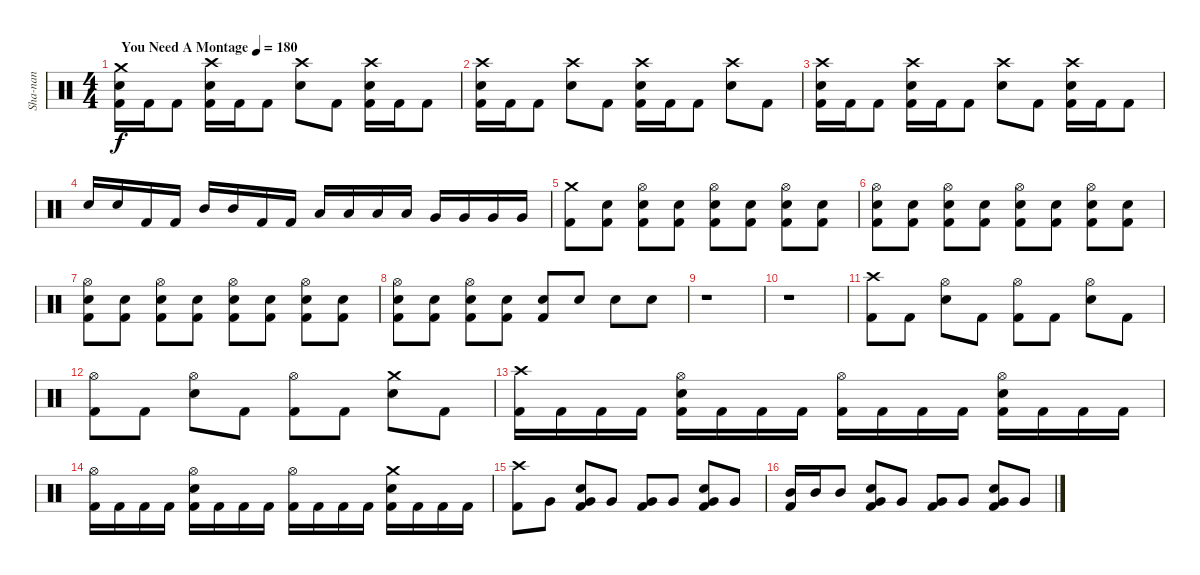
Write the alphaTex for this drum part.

\track ("Sha-nan" "Sha-nan") {instrument percussion}
\staff {score}
\articulation defaults
\ts (4 4)
\tempo (180 "You Need A Montage")
\clef neutral
\ks c
("Crash medium (hit)" "Snare (hit) 2" "Kick (hit) 2").16{dy f} "Kick (hit) 2".16 "Kick (hit) 2".8 ("Crash high (hit)" "Snare (hit) 2" "Kick (hit) 2").16 "Kick (hit) 2".16 "Kick (hit) 2".8 ("Crash high (hit)" "Snare (hit) 2").8 "Kick (hit) 2".8 ("Crash high (hit)" "Snare (hit) 2" "Kick (hit) 2").16 "Kick (hit) 2".16 "Kick (hit) 2".8 |
("Crash high (hit)" "Snare (hit) 2" "Kick (hit) 2").16 "Kick (hit) 2".16 "Kick (hit) 2".8 ("Crash high (hit)" "Snare (hit) 2").8 "Kick (hit) 2".8 ("Crash high (hit)" "Snare (hit) 2" "Kick (hit) 2").16 "Kick (hit) 2".16 "Kick (hit) 2".8 ("Crash high (hit)" "Snare (hit) 2").8 "Kick (hit) 2".8 |
("Crash high (hit)" "Snare (hit) 2" "Kick (hit) 2").16 "Kick (hit) 2".16 "Kick (hit) 2".8 ("Crash high (hit)" "Snare (hit) 2" "Kick (hit) 2").16 "Kick (hit) 2".16 "Kick (hit) 2".8 ("Crash high (hit)" "Snare (hit) 2").8 "Kick (hit) 2".8 ("Crash high (hit)" "Snare (hit) 2" "Kick (hit) 2").16 "Kick (hit) 2".16 "Kick (hit) 2".8 |
"Snare (hit) 2".16 "Snare (hit) 2".16 "Kick (hit) 2".16 "Kick (hit) 2".16 "Mid Tom (hit)".16 "Mid Tom (hit)".16 "Kick (hit) 2".16 "Kick (hit) 2".16 "Low Tom (hit)".16 "Low Tom (hit)".16 "Low Tom (hit)".16 "Low Tom (hit)".16 "Very Low Tom (hit)".16 "Very Low Tom (hit)".16 "Very Low Tom (hit)".16 "Very Low Tom (hit)".16 |
("Crash medium (hit)" "Kick (hit) 2").8 ("Snare (hit) 2" "Kick (hit) 2").8 ("Hi-Hat (open)" "Snare (hit) 2" "Kick (hit) 2").8 ("Snare (hit) 2" "Kick (hit) 2").8 ("Hi-Hat (open)" "Snare (hit) 2" "Kick (hit) 2").8 ("Snare (hit) 2" "Kick (hit) 2").8 ("Hi-Hat (open)" "Snare (hit) 2" "Kick (hit) 2").8 ("Snare (hit) 2" "Kick (hit) 2").8 |
("Hi-Hat (open)" "Snare (hit) 2" "Kick (hit) 2").8 ("Snare (hit) 2" "Kick (hit) 2").8 ("Hi-Hat (open)" "Snare (hit) 2" "Kick (hit) 2").8 ("Snare (hit) 2" "Kick (hit) 2").8 ("Hi-Hat (open)" "Snare (hit) 2" "Kick (hit) 2").8 ("Snare (hit) 2" "Kick (hit) 2").8 ("Hi-Hat (open)" "Snare (hit) 2" "Kick (hit) 2").8 ("Snare (hit) 2" "Kick (hit) 2").8 |
("Hi-Hat (open)" "Snare (hit) 2" "Kick (hit) 2").8 ("Snare (hit) 2" "Kick (hit) 2").8 ("Hi-Hat (open)" "Snare (hit) 2" "Kick (hit) 2").8 ("Snare (hit) 2" "Kick (hit) 2").8 ("Hi-Hat (open)" "Snare (hit) 2" "Kick (hit) 2").8 ("Snare (hit) 2" "Kick (hit) 2").8 ("Hi-Hat (open)" "Snare (hit) 2" "Kick (hit) 2").8 ("Snare (hit) 2" "Kick (hit) 2").8 |
("Hi-Hat (open)" "Snare (hit) 2" "Kick (hit) 2").8 ("Snare (hit) 2" "Kick (hit) 2").8 ("Hi-Hat (open)" "Snare (hit) 2" "Kick (hit) 2").8 ("Snare (hit) 2" "Kick (hit) 2").8 ("Snare (hit) 2" "Kick (hit) 2").8 "Snare (hit) 2".8 "Snare (hit) 2".8 "Snare (hit) 2".8 |
r.1 |
r.1 |
("Crash high (hit)" "Kick (hit) 2").8 "Kick (hit) 2".8 ("Hi-Hat (open)" "Snare (hit) 2").8 "Kick (hit) 2".8 ("Hi-Hat (open)" "Kick (hit) 2").8 "Kick (hit) 2".8 ("Hi-Hat (open)" "Snare (hit) 2").8 "Kick (hit) 2".8 |
("Hi-Hat (open)" "Kick (hit) 2").8 "Kick (hit) 2".8 ("Hi-Hat (open)" "Snare (hit) 2").8 "Kick (hit) 2".8 ("Hi-Hat (open)" "Kick (hit) 2").8 "Kick (hit) 2".8 ("Crash medium (hit)" "Snare (hit) 2").8 "Kick (hit) 2".8 |
("Crash high (hit)" "Kick (hit) 2").16 "Kick (hit) 2".16 "Kick (hit) 2".16 "Kick (hit) 2".16 ("Hi-Hat (open)" "Snare (hit) 2" "Kick (hit) 2").16 "Kick (hit) 2".16 "Kick (hit) 2".16 "Kick (hit) 2".16 ("Hi-Hat (open)" "Kick (hit) 2").16 "Kick (hit) 2".16 "Kick (hit) 2".16 "Kick (hit) 2".16 ("Hi-Hat (open)" "Snare (hit) 2" "Kick (hit) 2").16 "Kick (hit) 2".16 "Kick (hit) 2".16 "Kick (hit) 2".16 |
("Hi-Hat (open)" "Kick (hit) 2").16 "Kick (hit) 2".16 "Kick (hit) 2".16 "Kick (hit) 2".16 ("Hi-Hat (open)" "Snare (hit) 2" "Kick (hit) 2").16 "Kick (hit) 2".16 "Kick (hit) 2".16 "Kick (hit) 2".16 ("Hi-Hat (open)" "Kick (hit) 2").16 "Kick (hit) 2".16 "Kick (hit) 2".16 "Kick (hit) 2".16 ("Crash medium (hit)" "Snare (hit) 2" "Kick (hit) 2").16 "Kick (hit) 2".16 "Kick (hit) 2".16 "Kick (hit) 2".16 |
("Crash high (hit)" "Kick (hit) 2").8 "Very Low Tom (hit)".8 ("Very Low Tom (hit)" "Snare (hit) 2" "Kick (hit) 2").8 "Very Low Tom (hit)".8 ("Very Low Tom (hit)" "Kick (hit) 2").8 "Very Low Tom (hit)".8 ("Very Low Tom (hit)" "Snare (hit) 2" "Kick (hit) 2").8 "Very Low Tom (hit)".8 |
("Mid Tom (hit)" "Kick (hit) 2").16 "Mid Tom (hit)".16 "Mid Tom (hit)".8 ("Very Low Tom (hit)" "Snare (hit) 2" "Kick (hit) 2").8 "Very Low Tom (hit)".8 ("Very Low Tom (hit)" "Kick (hit) 2").8 "Very Low Tom (hit)".8 ("Very Low Tom (hit)" "Snare (hit) 2" "Kick (hit) 2").8 "Very Low Tom (hit)".8
